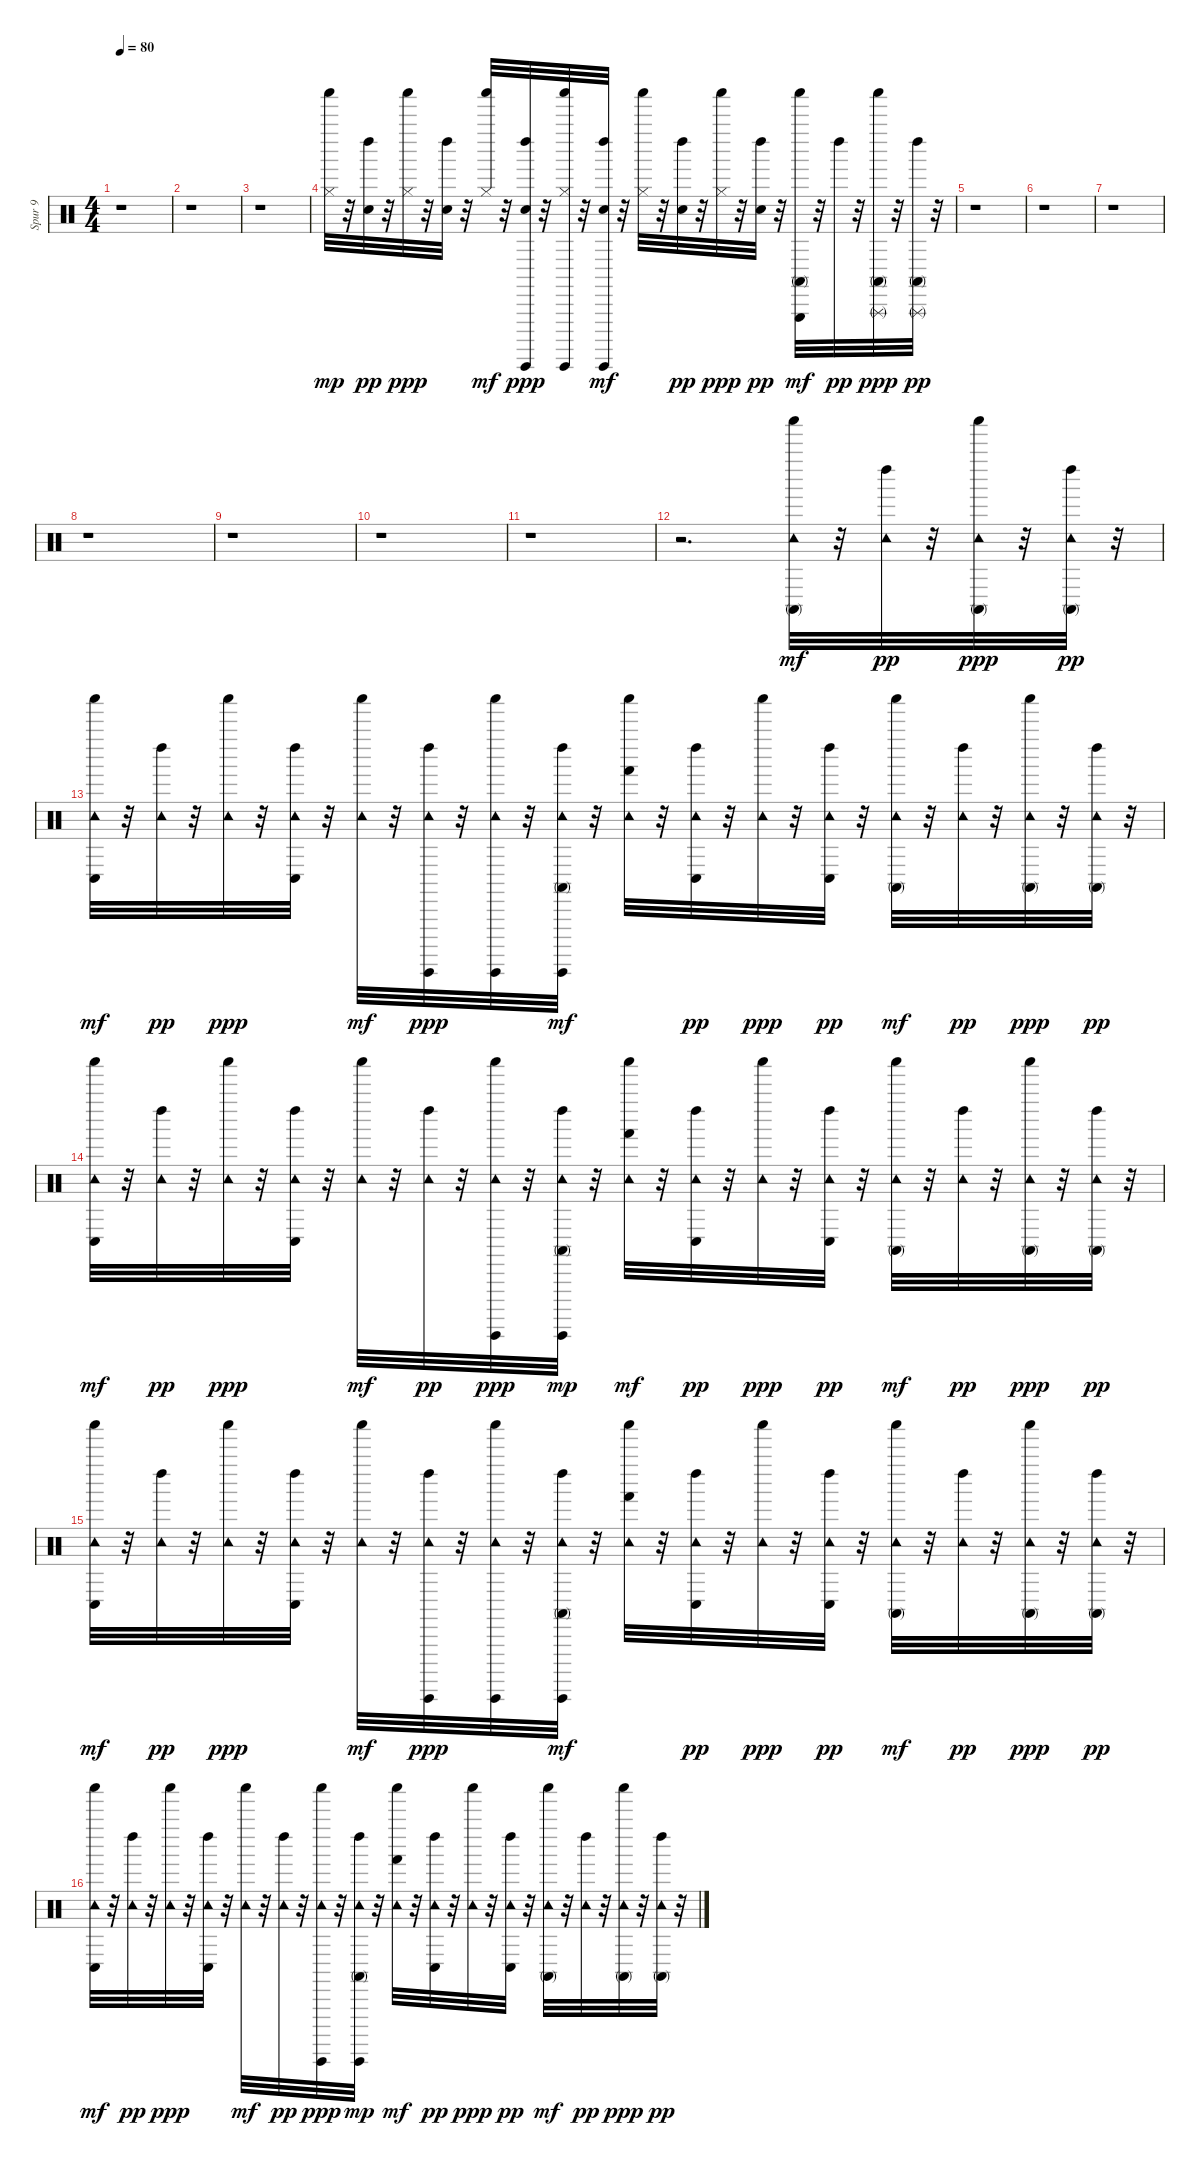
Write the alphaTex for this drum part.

\track ("Spur 9" "Spur 9") {instrument percussion}
\staff {score}
\articulation defaults
\ts (4 4)
\tempo 80
\clef neutral
\ks c
r.1{dy mp} |
r.1 |
r.1 |
("Hi-Hat (closed)" "Shaker (hit)").32 r.32 ("Snare (hit)" "Left Maraca (hit)").32{dy pp} r.32 ("Hi-Hat (closed)" "Shaker (hit)").32{dy ppp} r.32 ("Snare (hit)" "Left Maraca (hit)").32 r.32 ("Hi-Hat (closed)" "Shaker (hit)").32{dy mf} r.32 ("Snare (hit)" "Left Maraca (hit)" "Guiro (hit)").32{dy ppp} r.32 ("Hi-Hat (closed)" "Guiro (hit)" "Shaker (hit)").32 r.32 ("Snare (hit)" "Left Maraca (hit)" "Guiro (hit)").32{dy mf} r.32 ("Hi-Hat (closed)" "Shaker (hit)").32 r.32 ("Snare (hit)" "Left Maraca (hit)").32{dy pp} r.32 ("Hi-Hat (closed)" "Shaker (hit)").32{dy ppp} r.32 ("Snare (hit)" "Left Maraca (hit)").32{dy pp} r.32 ("Conga high (mute)" "Triangle (hit)" "Shaker (hit)").32{dy mf} r.32 "Left Maraca (hit)".32{dy pp} r.32 ("Conga high (mute)" "Triangle (rnute)" "Shaker (hit)").32{dy ppp} r.32 ("Conga high (mute)" "Left Maraca (hit)" "Triangle (rnute)").32{dy pp} r.32 |
r.1 |
r.1 |
r.1 |
r.1 |
r.1 |
r.1 |
r.1 |
r.2{d} ("Tambourine (hit)" "Conga high (mute)" "Shaker (hit)").32{dy mf} r.32 ("Tambourine (hit)" "Left Maraca (hit)").32{dy pp} r.32 ("Tambourine (hit)" "Conga high (mute)" "Shaker (hit)").32{dy ppp} r.32 ("Tambourine (hit)" "Conga high (mute)" "Left Maraca (hit)").32{dy pp} r.32 |
("Tambourine (hit)" "Conga low (hit)" "Shaker (hit)").32{dy mf} r.32 ("Tambourine (hit)" "Left Maraca (hit)").32{dy pp} r.32 ("Tambourine (hit)" "Shaker (hit)").32{dy ppp} r.32 ("Tambourine (hit)" "Conga low (hit)" "Left Maraca (hit)").32 r.32 ("Tambourine (hit)" "Shaker (hit)").32{dy mf} r.32 ("Tambourine (hit)" "Left Maraca (hit)" "Guiro (hit)").32{dy ppp} r.32 ("Tambourine (hit)" "Guiro (hit)" "Shaker (hit)").32 r.32 ("Tambourine (hit)" "Conga high (mute)" "Left Maraca (hit)" "Guiro (hit)").32{dy mf} r.32 ("Tambourine (hit)" "Hand (hit)" "Shaker (hit)").32 r.32 ("Tambourine (hit)" "Conga low (hit)" "Left Maraca (hit)").32{dy pp} r.32 ("Tambourine (hit)" "Shaker (hit)").32{dy ppp} r.32 ("Tambourine (hit)" "Conga low (hit)" "Left Maraca (hit)").32{dy pp} r.32 ("Tambourine (hit)" "Conga high (mute)" "Shaker (hit)").32{dy mf} r.32 ("Tambourine (hit)" "Left Maraca (hit)").32{dy pp} r.32 ("Tambourine (hit)" "Conga high (mute)" "Shaker (hit)").32{dy ppp} r.32 ("Tambourine (hit)" "Conga high (mute)" "Left Maraca (hit)").32{dy pp} r.32 |
("Tambourine (hit)" "Conga low (hit)" "Shaker (hit)").32{dy mf} r.32 ("Tambourine (hit)" "Left Maraca (hit)").32{dy pp} r.32 ("Tambourine (hit)" "Shaker (hit)").32{dy ppp} r.32 ("Tambourine (hit)" "Conga low (hit)" "Left Maraca (hit)").32 r.32 ("Tambourine (hit)" "Shaker (hit)").32{dy mf} r.32 ("Tambourine (hit)" "Left Maraca (hit)").32{dy pp} r.32 ("Tambourine (hit)" "Guiro (hit)" "Shaker (hit)").32{dy ppp} r.32 ("Tambourine (hit)" "Conga high (mute)" "Left Maraca (hit)" "Guiro (hit)").32{dy mp} r.32 ("Tambourine (hit)" "Hand (hit)" "Shaker (hit)").32{dy mf} r.32 ("Tambourine (hit)" "Conga low (hit)" "Left Maraca (hit)").32{dy pp} r.32 ("Tambourine (hit)" "Shaker (hit)").32{dy ppp} r.32 ("Tambourine (hit)" "Conga low (hit)" "Left Maraca (hit)").32{dy pp} r.32 ("Tambourine (hit)" "Conga high (mute)" "Shaker (hit)").32{dy mf} r.32 ("Tambourine (hit)" "Left Maraca (hit)").32{dy pp} r.32 ("Tambourine (hit)" "Conga high (mute)" "Shaker (hit)").32{dy ppp} r.32 ("Tambourine (hit)" "Conga high (mute)" "Left Maraca (hit)").32{dy pp} r.32 |
("Tambourine (hit)" "Conga low (hit)" "Shaker (hit)").32{dy mf} r.32 ("Tambourine (hit)" "Left Maraca (hit)").32{dy pp} r.32 ("Tambourine (hit)" "Shaker (hit)").32{dy ppp} r.32 ("Tambourine (hit)" "Conga low (hit)" "Left Maraca (hit)").32 r.32 ("Tambourine (hit)" "Shaker (hit)").32{dy mf} r.32 ("Tambourine (hit)" "Left Maraca (hit)" "Guiro (hit)").32{dy ppp} r.32 ("Tambourine (hit)" "Guiro (hit)" "Shaker (hit)").32 r.32 ("Tambourine (hit)" "Conga high (mute)" "Left Maraca (hit)" "Guiro (hit)").32{dy mf} r.32 ("Tambourine (hit)" "Hand (hit)" "Shaker (hit)").32 r.32 ("Tambourine (hit)" "Conga low (hit)" "Left Maraca (hit)").32{dy pp} r.32 ("Tambourine (hit)" "Shaker (hit)").32{dy ppp} r.32 ("Tambourine (hit)" "Conga low (hit)" "Left Maraca (hit)").32{dy pp} r.32 ("Tambourine (hit)" "Conga high (mute)" "Shaker (hit)").32{dy mf} r.32 ("Tambourine (hit)" "Left Maraca (hit)").32{dy pp} r.32 ("Tambourine (hit)" "Conga high (mute)" "Shaker (hit)").32{dy ppp} r.32 ("Tambourine (hit)" "Conga high (mute)" "Left Maraca (hit)").32{dy pp} r.32 |
("Tambourine (hit)" "Conga low (hit)" "Shaker (hit)").32{dy mf} r.32 ("Tambourine (hit)" "Left Maraca (hit)").32{dy pp} r.32 ("Tambourine (hit)" "Shaker (hit)").32{dy ppp} r.32 ("Tambourine (hit)" "Conga low (hit)" "Left Maraca (hit)").32 r.32 ("Tambourine (hit)" "Shaker (hit)").32{dy mf} r.32 ("Tambourine (hit)" "Left Maraca (hit)").32{dy pp} r.32 ("Tambourine (hit)" "Guiro (hit)" "Shaker (hit)").32{dy ppp} r.32 ("Tambourine (hit)" "Conga high (mute)" "Left Maraca (hit)" "Guiro (hit)").32{dy mp} r.32 ("Tambourine (hit)" "Hand (hit)" "Shaker (hit)").32{dy mf} r.32 ("Tambourine (hit)" "Conga low (hit)" "Left Maraca (hit)").32{dy pp} r.32 ("Tambourine (hit)" "Shaker (hit)").32{dy ppp} r.32 ("Tambourine (hit)" "Conga low (hit)" "Left Maraca (hit)").32{dy pp} r.32 ("Tambourine (hit)" "Conga high (mute)" "Shaker (hit)").32{dy mf} r.32 ("Tambourine (hit)" "Left Maraca (hit)").32{dy pp} r.32 ("Tambourine (hit)" "Conga high (mute)" "Shaker (hit)").32{dy ppp} r.32 ("Tambourine (hit)" "Conga high (mute)" "Left Maraca (hit)").32{dy pp} r.32
